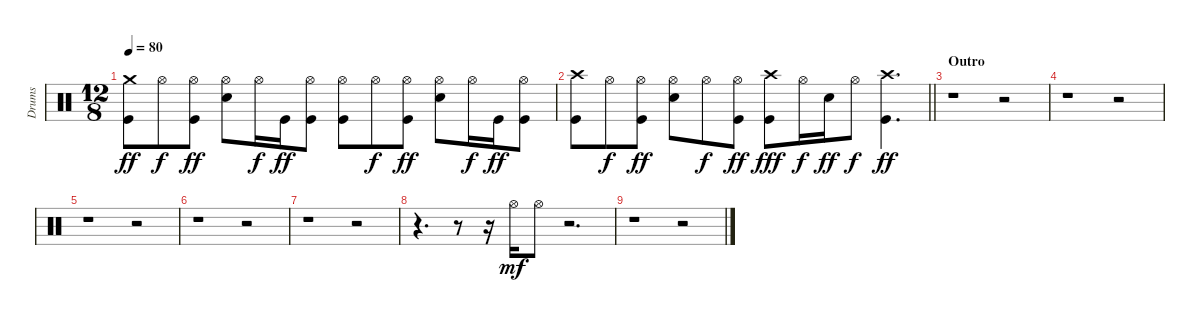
\track ("Drums" "Drums") {instrument percussion}
\staff {score}
\articulation defaults
\ts (12 8)
\tempo 80
\clef neutral
\ks c
("Kick (hit)" "Crash medium (hit)").8{dy ff} "Hi-Hat (open)".8{dy f} ("Kick (hit)" "Hi-Hat (open)").8{dy ff} ("Electric Snare (hit)" "Hi-Hat (open)").8 "Hi-Hat (open)".16{dy f} "Kick (hit)".16{dy ff} ("Kick (hit)" "Hi-Hat (open)").8 ("Kick (hit)" "Hi-Hat (open)").8 "Hi-Hat (open)".8{dy f} ("Kick (hit)" "Hi-Hat (open)").8{dy ff} ("Electric Snare (hit)" "Hi-Hat (open)").8 "Hi-Hat (open)".16{dy f} "Kick (hit)".16{dy ff} ("Kick (hit)" "Hi-Hat (open)").8 |
\barLineRight lightlight
("Kick (hit)" "Crash high (hit)").8 "Hi-Hat (open)".8{dy f} ("Kick (hit)" "Hi-Hat (open)").8{dy ff} ("Electric Snare (hit)" "Hi-Hat (open)").8 "Hi-Hat (open)".8{dy f} ("Kick (hit)" "Hi-Hat (open)").8{dy ff} ("Kick (hit)" "Crash high (hit)").8{dy fff} "Hi-Hat (open)".16{dy f} "Electric Snare (hit)".16{dy ff} "Hi-Hat (open)".8{dy f} ("Kick (hit)" "Crash high (hit)").4{d dy ff} |
\section ("" "Outro")
r.1 r.2 |
r.1 r.2 |
r.1 r.2 |
r.1 r.2 |
r.1 r.2 |
r.4{d} r.8 r.16 "Hi-Hat (open)".16{dy mf} "Hi-Hat (open)".8 r.2{d} |
r.1 r.2
